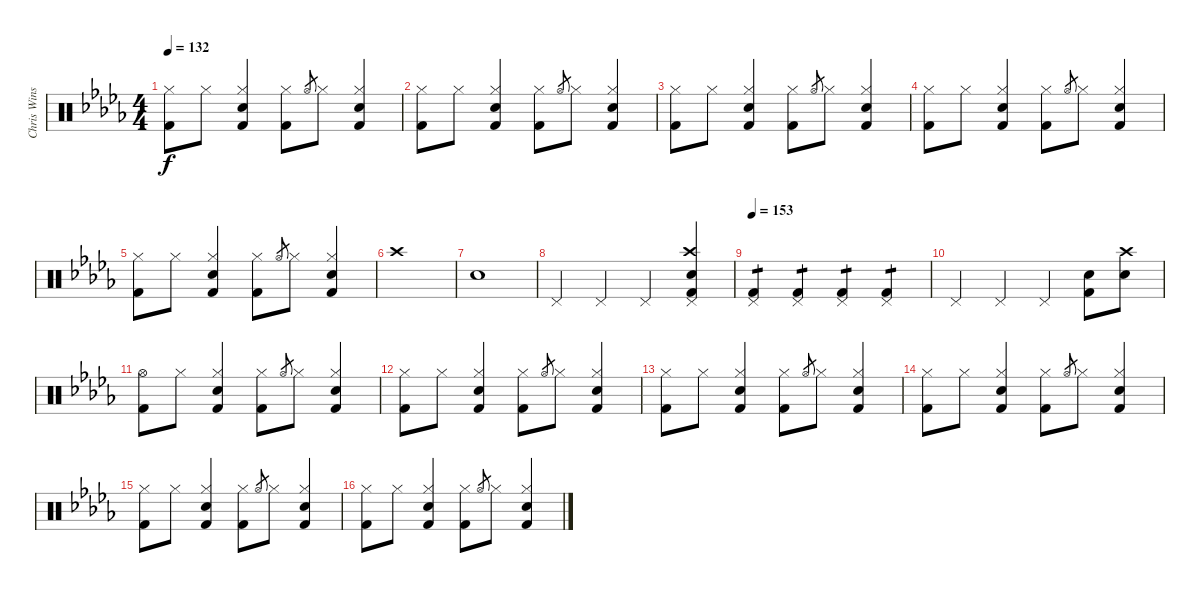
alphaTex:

\track ("Chris Winship (Drums)" "Chris Wins") {instrument percussion}
\staff {score}
\articulation defaults
\ts (4 4)
\tempo 132
\clef neutral
\ks db
("Kick (hit) 2" "Hi-Hat (closed)").8{dy f} "Hi-Hat (closed)".8 ("Hi-Hat (closed)" "Kick (hit) 2" "Electric Snare (hit)").4 ("Kick (hit) 2" "Hi-Hat (closed)").8 "Hi-Hat (open)".8{gr} "Hi-Hat (closed)".8 ("Hi-Hat (closed)" "Kick (hit) 2" "Electric Snare (hit)").4 |
("Kick (hit) 2" "Hi-Hat (closed)").8 "Hi-Hat (closed)".8 ("Hi-Hat (closed)" "Kick (hit) 2" "Electric Snare (hit)").4 ("Kick (hit) 2" "Hi-Hat (closed)").8 "Hi-Hat (open)".8{gr} "Hi-Hat (closed)".8 ("Hi-Hat (closed)" "Kick (hit) 2" "Electric Snare (hit)").4 |
("Kick (hit) 2" "Hi-Hat (closed)").8 "Hi-Hat (closed)".8 ("Hi-Hat (closed)" "Kick (hit) 2" "Electric Snare (hit)").4 ("Kick (hit) 2" "Hi-Hat (closed)").8 "Hi-Hat (open)".8{gr} "Hi-Hat (closed)".8 ("Hi-Hat (closed)" "Kick (hit) 2" "Electric Snare (hit)").4 |
("Kick (hit) 2" "Hi-Hat (closed)").8 "Hi-Hat (closed)".8 ("Hi-Hat (closed)" "Kick (hit) 2" "Electric Snare (hit)").4 ("Kick (hit) 2" "Hi-Hat (closed)").8 "Hi-Hat (open)".8{gr} "Hi-Hat (closed)".8 ("Hi-Hat (closed)" "Kick (hit) 2" "Electric Snare (hit)").4 |
("Kick (hit) 2" "Hi-Hat (closed)").8 "Hi-Hat (closed)".8 ("Hi-Hat (closed)" "Kick (hit) 2" "Electric Snare (hit)").4 ("Kick (hit) 2" "Hi-Hat (closed)").8 "Hi-Hat (open)".8{gr} "Hi-Hat (closed)".8 ("Hi-Hat (closed)" "Kick (hit) 2" "Electric Snare (hit)").4 |
"Crash high (hit)".1 |
"Snare (hit)".1 |
"Pedal Hi-Hat (hit)".4 "Pedal Hi-Hat (hit)".4 "Pedal Hi-Hat (hit)".4 ("Pedal Hi-Hat (hit)" "Kick (hit) 2" "Crash high (hit)" "Electric Snare (hit)").4 |
\tempo 153
("Pedal Hi-Hat (hit)" "Kick (hit) 2").4{tp 1 volume 12} ("Pedal Hi-Hat (hit)" "Kick (hit) 2").4{tp 1} ("Pedal Hi-Hat (hit)" "Kick (hit) 2").4{tp 1} ("Pedal Hi-Hat (hit)" "Kick (hit) 2").4{tp 1} |
"Pedal Hi-Hat (hit)".4 "Pedal Hi-Hat (hit)".4 "Pedal Hi-Hat (hit)".4 ("Kick (hit) 2" "Electric Snare (hit)").8 ("Electric Snare (hit)" "Crash high (hit)").8 |
("Kick (hit) 2" "Hi-Hat (open)").8 "Hi-Hat (closed)".8 ("Hi-Hat (closed)" "Kick (hit) 2" "Electric Snare (hit)").4 ("Kick (hit) 2" "Hi-Hat (closed)").8 "Hi-Hat (open)".8{gr} "Hi-Hat (closed)".8 ("Hi-Hat (closed)" "Kick (hit) 2" "Electric Snare (hit)").4 |
("Kick (hit) 2" "Hi-Hat (closed)").8 "Hi-Hat (closed)".8 ("Hi-Hat (closed)" "Kick (hit) 2" "Electric Snare (hit)").4 ("Kick (hit) 2" "Hi-Hat (closed)").8 "Hi-Hat (open)".8{gr} "Hi-Hat (closed)".8 ("Hi-Hat (closed)" "Kick (hit) 2" "Electric Snare (hit)").4 |
("Kick (hit) 2" "Hi-Hat (closed)").8 "Hi-Hat (closed)".8 ("Hi-Hat (closed)" "Kick (hit) 2" "Electric Snare (hit)").4 ("Kick (hit) 2" "Hi-Hat (closed)").8 "Hi-Hat (open)".8{gr} "Hi-Hat (closed)".8 ("Hi-Hat (closed)" "Kick (hit) 2" "Electric Snare (hit)").4 |
("Kick (hit) 2" "Hi-Hat (closed)").8 "Hi-Hat (closed)".8 ("Hi-Hat (closed)" "Kick (hit) 2" "Electric Snare (hit)").4 ("Kick (hit) 2" "Hi-Hat (closed)").8 "Hi-Hat (open)".8{gr} "Hi-Hat (closed)".8 ("Hi-Hat (closed)" "Kick (hit) 2" "Electric Snare (hit)").4 |
("Kick (hit) 2" "Hi-Hat (closed)").8 "Hi-Hat (closed)".8 ("Hi-Hat (closed)" "Kick (hit) 2" "Electric Snare (hit)").4 ("Kick (hit) 2" "Hi-Hat (closed)").8 "Hi-Hat (open)".8{gr} "Hi-Hat (closed)".8 ("Hi-Hat (closed)" "Kick (hit) 2" "Electric Snare (hit)").4 |
("Kick (hit) 2" "Hi-Hat (closed)").8 "Hi-Hat (closed)".8 ("Hi-Hat (closed)" "Kick (hit) 2" "Electric Snare (hit)").4 ("Kick (hit) 2" "Hi-Hat (closed)").8 "Hi-Hat (open)".8{gr} "Hi-Hat (closed)".8 ("Hi-Hat (closed)" "Kick (hit) 2" "Electric Snare (hit)").4
